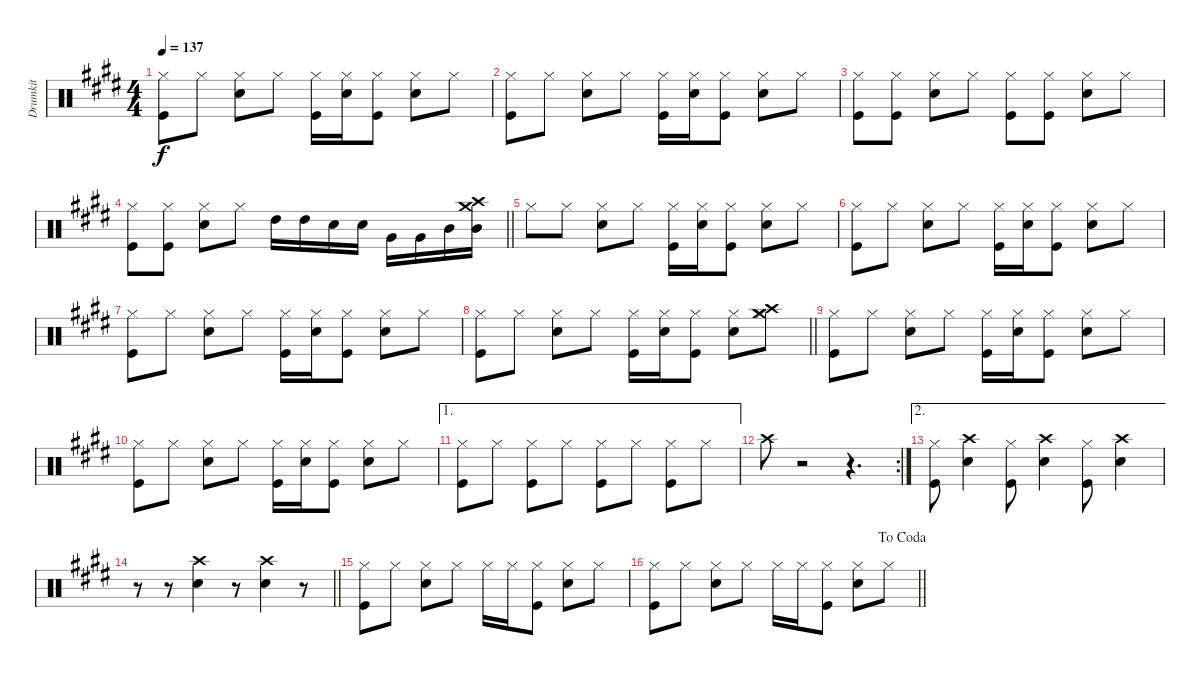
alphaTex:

\track ("Drumkit" "Drumkit") {instrument percussion}
\staff {score}
\articulation defaults
\ts (4 4)
\tempo 137
\clef neutral
\ks e
("Hi-Hat (closed)" "Kick (hit)").8{dy f} "Hi-Hat (closed)".8 ("Hi-Hat (closed)" "Snare (hit) 2").8 "Hi-Hat (closed)".8 ("Hi-Hat (closed)" "Kick (hit)").16 ("Hi-Hat (closed)" "Snare (hit) 2").16 ("Hi-Hat (closed)" "Kick (hit)").8 ("Hi-Hat (closed)" "Snare (hit) 2").8 "Hi-Hat (closed)".8 |
("Hi-Hat (closed)" "Kick (hit)").8 "Hi-Hat (closed)".8 ("Hi-Hat (closed)" "Snare (hit) 2").8 "Hi-Hat (closed)".8 ("Hi-Hat (closed)" "Kick (hit)").16 ("Hi-Hat (closed)" "Snare (hit) 2").16 ("Hi-Hat (closed)" "Kick (hit)").8 ("Hi-Hat (closed)" "Snare (hit) 2").8 "Hi-Hat (closed)".8 |
("Hi-Hat (closed)" "Kick (hit)").8 ("Hi-Hat (closed)" "Kick (hit)").8 ("Hi-Hat (closed)" "Snare (hit) 2").8 "Hi-Hat (closed)".8 ("Hi-Hat (closed)" "Kick (hit)").8 ("Hi-Hat (closed)" "Kick (hit)").8 ("Hi-Hat (closed)" "Snare (hit) 2").8 "Hi-Hat (closed)".8 |
\barLineRight lightlight
("Hi-Hat (closed)" "Kick (hit)").8 ("Hi-Hat (closed)" "Kick (hit)").8 ("Hi-Hat (closed)" "Snare (hit) 2").8 "Hi-Hat (closed)".8 "High Tom (hit)".16 "High Tom (hit)".16 "Snare (hit) 2".16 "Snare (hit) 2".16 "Very Low Tom (hit)".16 "Very Low Tom (hit)".16 "Mid Tom (hit)".16 ("Crash high (hit)" "Mid Tom (hit)" "Crash medium (hit)").16 |
"Hi-Hat (closed)".8 "Hi-Hat (closed)".8 ("Hi-Hat (closed)" "Snare (hit) 2").8 "Hi-Hat (closed)".8 ("Hi-Hat (closed)" "Kick (hit)").16 ("Hi-Hat (closed)" "Snare (hit) 2").16 ("Hi-Hat (closed)" "Kick (hit)").8 ("Hi-Hat (closed)" "Snare (hit) 2").8 "Hi-Hat (closed)".8 |
("Hi-Hat (closed)" "Kick (hit)").8 "Hi-Hat (closed)".8 ("Hi-Hat (closed)" "Snare (hit) 2").8 "Hi-Hat (closed)".8 ("Hi-Hat (closed)" "Kick (hit)").16 ("Hi-Hat (closed)" "Snare (hit) 2").16 ("Hi-Hat (closed)" "Kick (hit)").8 ("Hi-Hat (closed)" "Snare (hit) 2").8 "Hi-Hat (closed)".8 |
("Hi-Hat (closed)" "Kick (hit)").8 "Hi-Hat (closed)".8 ("Hi-Hat (closed)" "Snare (hit) 2").8 "Hi-Hat (closed)".8 ("Hi-Hat (closed)" "Kick (hit)").16 ("Hi-Hat (closed)" "Snare (hit) 2").16 ("Hi-Hat (closed)" "Kick (hit)").8 ("Hi-Hat (closed)" "Snare (hit) 2").8 "Hi-Hat (closed)".8 |
\barLineRight lightlight
("Hi-Hat (closed)" "Kick (hit)").8 "Hi-Hat (closed)".8 ("Hi-Hat (closed)" "Snare (hit) 2").8 "Hi-Hat (closed)".8 ("Hi-Hat (closed)" "Kick (hit)").16 ("Hi-Hat (closed)" "Snare (hit) 2").16 ("Hi-Hat (closed)" "Kick (hit)").8 ("Hi-Hat (closed)" "Snare (hit) 2").8 ("Hi-Hat (closed)" "Crash high (hit)" "Crash medium (hit)").8 |
("Hi-Hat (closed)" "Kick (hit)").8 "Hi-Hat (closed)".8 ("Hi-Hat (closed)" "Snare (hit) 2").8 "Hi-Hat (closed)".8 ("Hi-Hat (closed)" "Kick (hit)").16 ("Hi-Hat (closed)" "Snare (hit) 2").16 ("Hi-Hat (closed)" "Kick (hit)").8 ("Hi-Hat (closed)" "Snare (hit) 2").8 "Hi-Hat (closed)".8 |
("Hi-Hat (closed)" "Kick (hit)").8 "Hi-Hat (closed)".8 ("Hi-Hat (closed)" "Snare (hit) 2").8 "Hi-Hat (closed)".8 ("Hi-Hat (closed)" "Kick (hit)").16 ("Hi-Hat (closed)" "Snare (hit) 2").16 ("Hi-Hat (closed)" "Kick (hit)").8 ("Hi-Hat (closed)" "Snare (hit) 2").8 "Hi-Hat (closed)".8 |
\ae 1
("Hi-Hat (closed)" "Kick (hit)").8 "Hi-Hat (closed)".8 ("Hi-Hat (closed)" "Kick (hit)").8 "Hi-Hat (closed)".8 ("Hi-Hat (closed)" "Kick (hit)").8 "Hi-Hat (closed)".8 ("Hi-Hat (closed)" "Kick (hit)").8 "Hi-Hat (closed)".8 |
\rc 2 "Crash high (hit)".8
r.2 r.4{d} |
\ae 2
("Hi-Hat (closed)" "Kick (hit)").8 ("Crash high (hit)" "Snare (hit) 2").4 ("Hi-Hat (closed)" "Kick (hit)").8 ("Crash high (hit)" "Snare (hit) 2").4 ("Hi-Hat (closed)" "Kick (hit)").8 ("Crash high (hit)" "Snare (hit) 2").4 |
\barLineRight lightlight
r.8 r.8 ("Crash high (hit)" "Snare (hit) 2").4 r.8 ("Crash high (hit)" "Snare (hit) 2").4 r.8 |
("Hi-Hat (closed)" "Kick (hit)").8 "Hi-Hat (closed)".8 ("Hi-Hat (closed)" "Snare (hit) 2").8 "Hi-Hat (closed)".8 "Hi-Hat (closed)".16 "Hi-Hat (closed)".16 ("Hi-Hat (closed)" "Kick (hit)").8 ("Hi-Hat (closed)" "Snare (hit) 2").8 "Hi-Hat (closed)".8 |
\jump dacoda
\barLineRight lightlight
("Hi-Hat (closed)" "Kick (hit)").8 "Hi-Hat (closed)".8 ("Hi-Hat (closed)" "Snare (hit) 2").8 "Hi-Hat (closed)".8 "Hi-Hat (closed)".16 "Hi-Hat (closed)".16 ("Hi-Hat (closed)" "Kick (hit)").8 ("Hi-Hat (closed)" "Snare (hit) 2").8 "Hi-Hat (closed)".8
